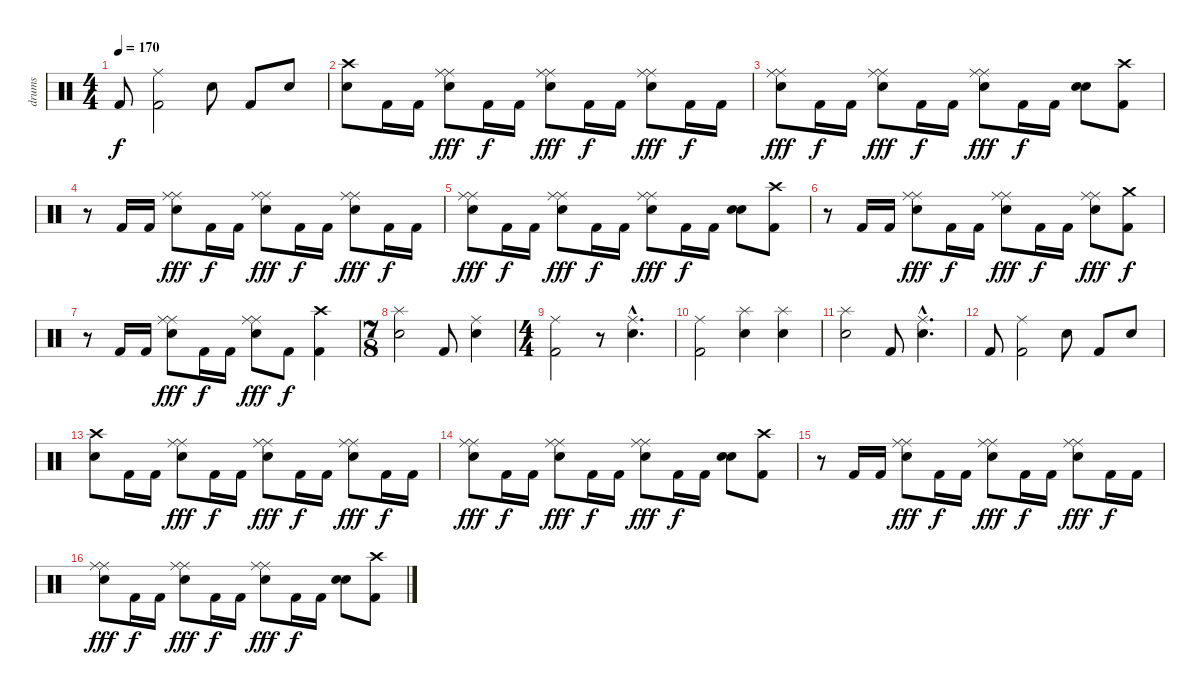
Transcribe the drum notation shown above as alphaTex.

\track ("drums" "drums") {instrument percussion}
\staff {score}
\articulation defaults
\ts (4 4)
\tempo 170
\clef neutral
\ks c "Kick (hit) 2".8{dy f}
("Ride (middle)" "Kick (hit) 2").2 "Snare (hit) 2".8 "Kick (hit) 2".8 "Snare (hit) 2".8 |
("Crash high (hit)" "Snare (hit) 2").8 "Kick (hit) 2".16 "Kick (hit) 2".16 ("Ride (middle)" "Ride (middle)" "Snare (hit) 2").8{dy fff} "Kick (hit) 2".16{dy f} "Kick (hit) 2".16 ("Ride (middle)" "Ride (middle)" "Snare (hit) 2").8{dy fff} "Kick (hit) 2".16{dy f} "Kick (hit) 2".16 ("Ride (middle)" "Ride (middle)" "Snare (hit) 2").8{dy fff} "Kick (hit) 2".16{dy f} "Kick (hit) 2".16 |
("Ride (middle)" "Ride (middle)" "Snare (hit) 2").8{dy fff} "Kick (hit) 2".16{dy f} "Kick (hit) 2".16 ("Ride (middle)" "Ride (middle)" "Snare (hit) 2").8{dy fff} "Kick (hit) 2".16{dy f} "Kick (hit) 2".16 ("Ride (middle)" "Ride (middle)" "Snare (hit) 2").8{dy fff} "Kick (hit) 2".16{dy f} "Kick (hit) 2".16 ("Snare (hit) 2" "Snare (hit) 2").8 ("Crash high (hit)" "Kick (hit) 2").8 |
r.8 "Kick (hit) 2".16 "Kick (hit) 2".16 ("Ride (middle)" "Ride (middle)" "Snare (hit) 2").8{dy fff} "Kick (hit) 2".16{dy f} "Kick (hit) 2".16 ("Ride (middle)" "Ride (middle)" "Snare (hit) 2").8{dy fff} "Kick (hit) 2".16{dy f} "Kick (hit) 2".16 ("Ride (middle)" "Ride (middle)" "Snare (hit) 2").8{dy fff} "Kick (hit) 2".16{dy f} "Kick (hit) 2".16 |
("Ride (middle)" "Ride (middle)" "Snare (hit) 2").8{dy fff} "Kick (hit) 2".16{dy f} "Kick (hit) 2".16 ("Ride (middle)" "Ride (middle)" "Snare (hit) 2").8{dy fff} "Kick (hit) 2".16{dy f} "Kick (hit) 2".16 ("Ride (middle)" "Ride (middle)" "Snare (hit) 2").8{dy fff} "Kick (hit) 2".16{dy f} "Kick (hit) 2".16 ("Snare (hit) 2" "Snare (hit) 2").8 ("Crash high (hit)" "Kick (hit) 2").8 |
r.8 "Kick (hit) 2".16 "Kick (hit) 2".16 ("Ride (middle)" "Ride (middle)" "Snare (hit) 2").8{dy fff} "Kick (hit) 2".16{dy f} "Kick (hit) 2".16 ("Ride (middle)" "Ride (middle)" "Snare (hit) 2").8{dy fff} "Kick (hit) 2".16{dy f} "Kick (hit) 2".16 ("Ride (middle)" "Ride (middle)" "Snare (hit) 2").8{dy fff} ("Crash medium (hit)" "Kick (hit) 2").8{dy f} |
r.8 "Kick (hit) 2".16 "Kick (hit) 2".16 ("Ride (middle)" "Ride (middle)" "Snare (hit) 2").8{dy fff} "Kick (hit) 2".16{dy f} "Kick (hit) 2".16 ("Ride (middle)" "Ride (middle)" "Snare (hit) 2").8{dy fff} "Kick (hit) 2".8{dy f} ("Crash high (hit)" "Kick (hit) 2").4 |
\ts (7 8)
("Splash (hit)" "Snare (hit) 2").2 "Kick (hit) 2".8 ("Ride (middle)" "Snare (hit) 2").4 |
\ts (4 4)
("Ride (middle)" "Kick (hit) 2").2 r.8 ("Ride (middle)"{hac} "Snare (hit) 2"{hac}).4{d} |
("Ride (middle)" "Kick (hit) 2").2 ("Splash (hit)" "Snare (hit) 2").4 ("Splash (hit)" "Snare (hit) 2").4 |
("Splash (hit)" "Snare (hit) 2").2 "Kick (hit) 2".8 ("Ride (middle)"{hac} "Snare (hit) 2"{hac}).4{d} |
"Kick (hit) 2".8 ("Ride (middle)" "Kick (hit) 2").2 "Snare (hit) 2".8 "Kick (hit) 2".8 "Snare (hit) 2".8 |
("Crash high (hit)" "Snare (hit) 2").8 "Kick (hit) 2".16 "Kick (hit) 2".16 ("Ride (middle)" "Ride (middle)" "Snare (hit) 2").8{dy fff} "Kick (hit) 2".16{dy f} "Kick (hit) 2".16 ("Ride (middle)" "Ride (middle)" "Snare (hit) 2").8{dy fff} "Kick (hit) 2".16{dy f} "Kick (hit) 2".16 ("Ride (middle)" "Ride (middle)" "Snare (hit) 2").8{dy fff} "Kick (hit) 2".16{dy f} "Kick (hit) 2".16 |
("Ride (middle)" "Ride (middle)" "Snare (hit) 2").8{dy fff} "Kick (hit) 2".16{dy f} "Kick (hit) 2".16 ("Ride (middle)" "Ride (middle)" "Snare (hit) 2").8{dy fff} "Kick (hit) 2".16{dy f} "Kick (hit) 2".16 ("Ride (middle)" "Ride (middle)" "Snare (hit) 2").8{dy fff} "Kick (hit) 2".16{dy f} "Kick (hit) 2".16 ("Snare (hit) 2" "Snare (hit) 2").8 ("Crash high (hit)" "Kick (hit) 2").8 |
r.8 "Kick (hit) 2".16 "Kick (hit) 2".16 ("Ride (middle)" "Ride (middle)" "Snare (hit) 2").8{dy fff} "Kick (hit) 2".16{dy f} "Kick (hit) 2".16 ("Ride (middle)" "Ride (middle)" "Snare (hit) 2").8{dy fff} "Kick (hit) 2".16{dy f} "Kick (hit) 2".16 ("Ride (middle)" "Ride (middle)" "Snare (hit) 2").8{dy fff} "Kick (hit) 2".16{dy f} "Kick (hit) 2".16 |
("Ride (middle)" "Ride (middle)" "Snare (hit) 2").8{dy fff} "Kick (hit) 2".16{dy f} "Kick (hit) 2".16 ("Ride (middle)" "Ride (middle)" "Snare (hit) 2").8{dy fff} "Kick (hit) 2".16{dy f} "Kick (hit) 2".16 ("Ride (middle)" "Ride (middle)" "Snare (hit) 2").8{dy fff} "Kick (hit) 2".16{dy f} "Kick (hit) 2".16 ("Snare (hit) 2" "Snare (hit) 2").8 ("Crash high (hit)" "Kick (hit) 2").8
